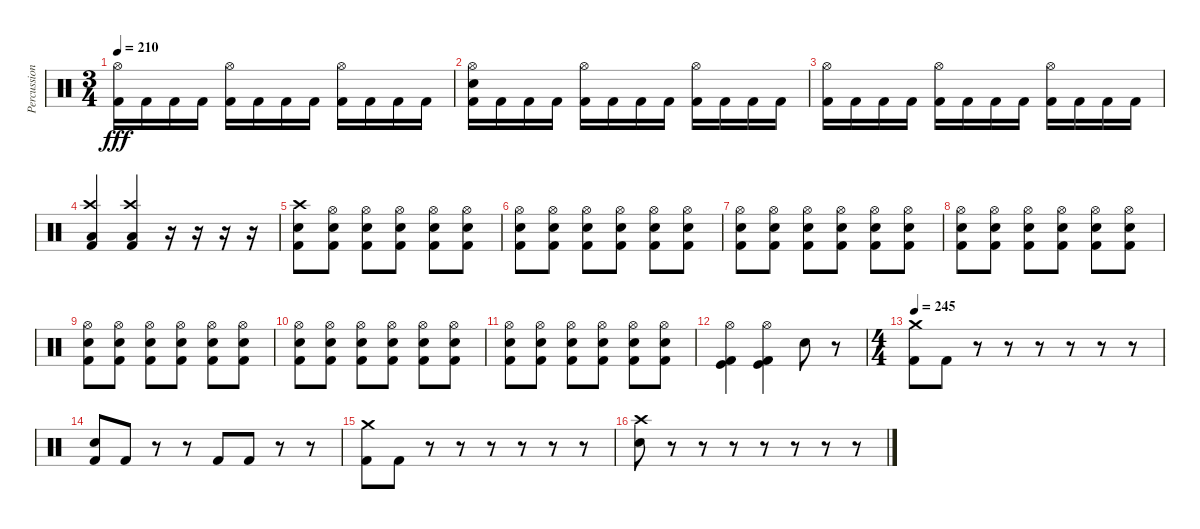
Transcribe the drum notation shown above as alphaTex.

\track ("Percussion" "Percussion") {instrument percussion}
\staff {score}
\articulation defaults
\ts (3 4)
\tempo 210
\clef neutral
\ks c
("Hi-Hat (open)" "Kick (hit) 2").16{dy fff} "Kick (hit) 2".16 "Kick (hit) 2".16 "Kick (hit) 2".16 ("Hi-Hat (open)" "Kick (hit) 2").16 "Kick (hit) 2".16 "Kick (hit) 2".16 "Kick (hit) 2".16 ("Hi-Hat (open)" "Kick (hit) 2").16 "Kick (hit) 2".16 "Kick (hit) 2".16 "Kick (hit) 2".16 |
("Hi-Hat (open)" "Electric Snare (hit)" "Kick (hit) 2").16 "Kick (hit) 2".16 "Kick (hit) 2".16 "Kick (hit) 2".16 ("Hi-Hat (open)" "Kick (hit) 2").16 "Kick (hit) 2".16 "Kick (hit) 2".16 "Kick (hit) 2".16 ("Hi-Hat (open)" "Kick (hit) 2").16 "Kick (hit) 2".16 "Kick (hit) 2".16 "Kick (hit) 2".16 |
("Hi-Hat (open)" "Kick (hit) 2").16 "Kick (hit) 2".16 "Kick (hit) 2".16 "Kick (hit) 2".16 ("Hi-Hat (open)" "Kick (hit) 2").16 "Kick (hit) 2".16 "Kick (hit) 2".16 "Kick (hit) 2".16 ("Hi-Hat (open)" "Kick (hit) 2").16 "Kick (hit) 2".16 "Kick (hit) 2".16 "Kick (hit) 2".16 |
("Crash high (hit)" "Low Floor Tom (hit)" "Kick (hit) 2").4 ("Crash high (hit)" "Low Floor Tom (hit)" "Kick (hit) 2").4 r.16 r.16 r.16 r.16 |
("Crash high (hit)" "Electric Snare (hit)" "Kick (hit) 2").8 ("Hi-Hat (open)" "Electric Snare (hit)" "Kick (hit) 2").8 ("Hi-Hat (open)" "Electric Snare (hit)" "Kick (hit) 2").8 ("Hi-Hat (open)" "Electric Snare (hit)" "Kick (hit) 2").8 ("Hi-Hat (open)" "Electric Snare (hit)" "Kick (hit) 2").8 ("Hi-Hat (open)" "Electric Snare (hit)" "Kick (hit) 2").8 |
("Hi-Hat (open)" "Electric Snare (hit)" "Kick (hit) 2").8 ("Hi-Hat (open)" "Electric Snare (hit)" "Kick (hit) 2").8 ("Hi-Hat (open)" "Electric Snare (hit)" "Kick (hit) 2").8 ("Hi-Hat (open)" "Electric Snare (hit)" "Kick (hit) 2").8 ("Hi-Hat (open)" "Electric Snare (hit)" "Kick (hit) 2").8 ("Hi-Hat (open)" "Electric Snare (hit)" "Kick (hit) 2").8 |
("Hi-Hat (open)" "Electric Snare (hit)" "Kick (hit) 2").8 ("Hi-Hat (open)" "Electric Snare (hit)" "Kick (hit) 2").8 ("Hi-Hat (open)" "Electric Snare (hit)" "Kick (hit) 2").8 ("Hi-Hat (open)" "Electric Snare (hit)" "Kick (hit) 2").8 ("Hi-Hat (open)" "Electric Snare (hit)" "Kick (hit) 2").8 ("Hi-Hat (open)" "Electric Snare (hit)" "Kick (hit) 2").8 |
("Hi-Hat (open)" "Electric Snare (hit)" "Kick (hit) 2").8 ("Hi-Hat (open)" "Electric Snare (hit)" "Kick (hit) 2").8 ("Hi-Hat (open)" "Electric Snare (hit)" "Kick (hit) 2").8 ("Hi-Hat (open)" "Electric Snare (hit)" "Kick (hit) 2").8 ("Hi-Hat (open)" "Electric Snare (hit)" "Kick (hit) 2").8 ("Hi-Hat (open)" "Electric Snare (hit)" "Kick (hit) 2").8 |
("Hi-Hat (open)" "Electric Snare (hit)" "Kick (hit) 2").8 ("Hi-Hat (open)" "Electric Snare (hit)" "Kick (hit) 2").8 ("Hi-Hat (open)" "Electric Snare (hit)" "Kick (hit) 2").8 ("Hi-Hat (open)" "Electric Snare (hit)" "Kick (hit) 2").8 ("Hi-Hat (open)" "Electric Snare (hit)" "Kick (hit) 2").8 ("Hi-Hat (open)" "Electric Snare (hit)" "Kick (hit) 2").8 |
("Hi-Hat (open)" "Electric Snare (hit)" "Kick (hit) 2").8 ("Hi-Hat (open)" "Electric Snare (hit)" "Kick (hit) 2").8 ("Hi-Hat (open)" "Electric Snare (hit)" "Kick (hit) 2").8 ("Hi-Hat (open)" "Electric Snare (hit)" "Kick (hit) 2").8 ("Hi-Hat (open)" "Electric Snare (hit)" "Kick (hit) 2").8 ("Hi-Hat (open)" "Electric Snare (hit)" "Kick (hit) 2").8 |
("Hi-Hat (open)" "Electric Snare (hit)" "Kick (hit) 2").8 ("Hi-Hat (open)" "Electric Snare (hit)" "Kick (hit) 2").8 ("Hi-Hat (open)" "Electric Snare (hit)" "Kick (hit) 2").8 ("Hi-Hat (open)" "Electric Snare (hit)" "Kick (hit) 2").8 ("Hi-Hat (open)" "Electric Snare (hit)" "Kick (hit) 2").8 ("Hi-Hat (open)" "Electric Snare (hit)" "Kick (hit) 2").8 |
("Hi-Hat (open)" "Kick (hit)" "Kick (hit) 2").4 ("Hi-Hat (open)" "Kick (hit)" "Kick (hit) 2").4 "Electric Snare (hit)".8 r.8 |
\ts (4 4)
\tempo 245
("Crash medium (hit)" "Kick (hit) 2").8 "Kick (hit) 2".8 r.8 r.8 r.8 r.8 r.8 r.8 |
("Electric Snare (hit)" "Kick (hit) 2").8 "Kick (hit) 2".8 r.8 r.8 "Kick (hit) 2".8 "Kick (hit) 2".8 r.8 r.8 |
("Crash medium (hit)" "Kick (hit) 2").8 "Kick (hit) 2".8 r.8 r.8 r.8 r.8 r.8 r.8 |
("Crash high (hit)" "Electric Snare (hit)").8 r.8 r.8 r.8 r.8 r.8 r.8 r.8
